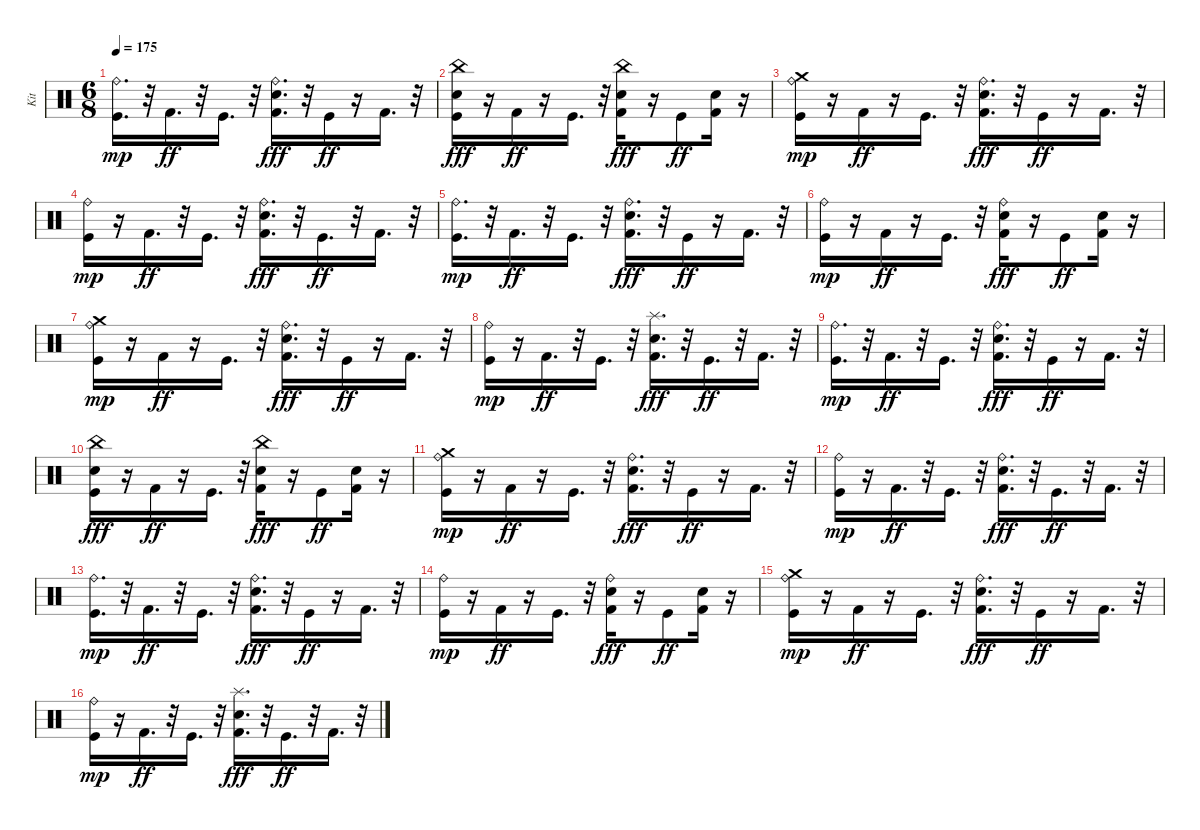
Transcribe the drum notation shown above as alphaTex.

\track ("Kit" "Kit") {instrument percussion}
\staff {score}
\articulation defaults
\ts (6 8)
\tempo 175
\clef neutral
\ks c
("Kick (hit)" "Ride (bell)").16{d dy mp} r.32 "Kick (hit) 2".16{d dy ff} r.32 "Kick (hit)".16{d} r.32 ("Kick (hit) 2" "Snare (hit) 2" "Ride (bell)").16{d dy fff} r.32 "Kick (hit)".16{dy ff} r.16 "Kick (hit) 2".16{d} r.32 |
("Kick (hit)" "Snare (hit) 2" "China (hit)").16{dy fff} r.16 "Kick (hit) 2".16{dy ff} r.16 "Kick (hit)".16{d} r.32 ("Kick (hit) 2" "Snare (hit) 2" "China (hit)").16{dy fff} r.16 "Kick (hit)".8{dy ff} ("Kick (hit) 2" "Snare (hit) 2").16 r.16 |
("Kick (hit)" "Ride (bell)" "Crash medium (hit)").16{dy mp} r.16 "Kick (hit) 2".16{dy ff} r.16 "Kick (hit)".16{d} r.32 ("Kick (hit) 2" "Snare (hit) 2" "Ride (bell)").16{d dy fff} r.32 "Kick (hit)".16{dy ff} r.16 "Kick (hit) 2".16{d} r.32 |
("Kick (hit)" "Ride (bell)").16{dy mp} r.16 "Kick (hit) 2".16{d dy ff} r.32 "Kick (hit)".16{d} r.32 ("Kick (hit) 2" "Snare (hit) 2" "Ride (bell)").16{d dy fff} r.32 "Kick (hit)".16{d dy ff} r.32 "Kick (hit) 2".16{d} r.32 |
("Kick (hit)" "Ride (bell)").16{d dy mp} r.32 "Kick (hit) 2".16{d dy ff} r.32 "Kick (hit)".16{d} r.32 ("Kick (hit) 2" "Snare (hit) 2" "Ride (bell)").16{d dy fff} r.32 "Kick (hit)".16{dy ff} r.16 "Kick (hit) 2".16{d} r.32 |
("Kick (hit)" "Ride (bell)").16{dy mp} r.16 "Kick (hit) 2".16{dy ff} r.16 "Kick (hit)".16{d} r.32 ("Kick (hit) 2" "Snare (hit) 2" "Ride (bell)").16{dy fff} r.16 "Kick (hit)".8{dy ff} ("Kick (hit) 2" "Snare (hit) 2").16 r.16 |
("Kick (hit)" "Ride (bell)" "Crash medium (hit)").16{dy mp} r.16 "Kick (hit) 2".16{dy ff} r.16 "Kick (hit)".16{d} r.32 ("Kick (hit) 2" "Snare (hit) 2" "Ride (bell)").16{d dy fff} r.32 "Kick (hit)".16{dy ff} r.16 "Kick (hit) 2".16{d} r.32 |
("Kick (hit)" "Ride (bell)").16{dy mp} r.16 "Kick (hit) 2".16{d dy ff} r.32 "Kick (hit)".16{d} r.32 ("Kick (hit) 2" "Snare (hit) 2" "Splash (hit)").16{d dy fff} r.32 "Kick (hit)".16{d dy ff} r.32 "Kick (hit) 2".16{d} r.32 |
("Kick (hit)" "Ride (bell)").16{d dy mp} r.32 "Kick (hit) 2".16{d dy ff} r.32 "Kick (hit)".16{d} r.32 ("Kick (hit) 2" "Snare (hit) 2" "Ride (bell)").16{d dy fff} r.32 "Kick (hit)".16{dy ff} r.16 "Kick (hit) 2".16{d} r.32 |
("Kick (hit)" "Snare (hit) 2" "China (hit)").16{dy fff} r.16 "Kick (hit) 2".16{dy ff} r.16 "Kick (hit)".16{d} r.32 ("Kick (hit) 2" "Snare (hit) 2" "China (hit)").16{dy fff} r.16 "Kick (hit)".8{dy ff} ("Kick (hit) 2" "Snare (hit) 2").16 r.16 |
("Kick (hit)" "Ride (bell)" "Crash medium (hit)").16{dy mp} r.16 "Kick (hit) 2".16{dy ff} r.16 "Kick (hit)".16{d} r.32 ("Kick (hit) 2" "Snare (hit) 2" "Ride (bell)").16{d dy fff} r.32 "Kick (hit)".16{dy ff} r.16 "Kick (hit) 2".16{d} r.32 |
("Kick (hit)" "Ride (bell)").16{dy mp} r.16 "Kick (hit) 2".16{d dy ff} r.32 "Kick (hit)".16{d} r.32 ("Kick (hit) 2" "Snare (hit) 2" "Ride (bell)").16{d dy fff} r.32 "Kick (hit)".16{d dy ff} r.32 "Kick (hit) 2".16{d} r.32 |
("Kick (hit)" "Ride (bell)").16{d dy mp} r.32 "Kick (hit) 2".16{d dy ff} r.32 "Kick (hit)".16{d} r.32 ("Kick (hit) 2" "Snare (hit) 2" "Ride (bell)").16{d dy fff} r.32 "Kick (hit)".16{dy ff} r.16 "Kick (hit) 2".16{d} r.32 |
("Kick (hit)" "Ride (bell)").16{dy mp} r.16 "Kick (hit) 2".16{dy ff} r.16 "Kick (hit)".16{d} r.32 ("Kick (hit) 2" "Snare (hit) 2" "Ride (bell)").16{dy fff} r.16 "Kick (hit)".8{dy ff} ("Kick (hit) 2" "Snare (hit) 2").16 r.16 |
("Kick (hit)" "Ride (bell)" "Crash medium (hit)").16{dy mp} r.16 "Kick (hit) 2".16{dy ff} r.16 "Kick (hit)".16{d} r.32 ("Kick (hit) 2" "Snare (hit) 2" "Ride (bell)").16{d dy fff} r.32 "Kick (hit)".16{dy ff} r.16 "Kick (hit) 2".16{d} r.32 |
("Kick (hit)" "Ride (bell)").16{dy mp} r.16 "Kick (hit) 2".16{d dy ff} r.32 "Kick (hit)".16{d} r.32 ("Kick (hit) 2" "Snare (hit) 2" "Splash (hit)").16{d dy fff} r.32 "Kick (hit)".16{d dy ff} r.32 "Kick (hit) 2".16{d} r.32
